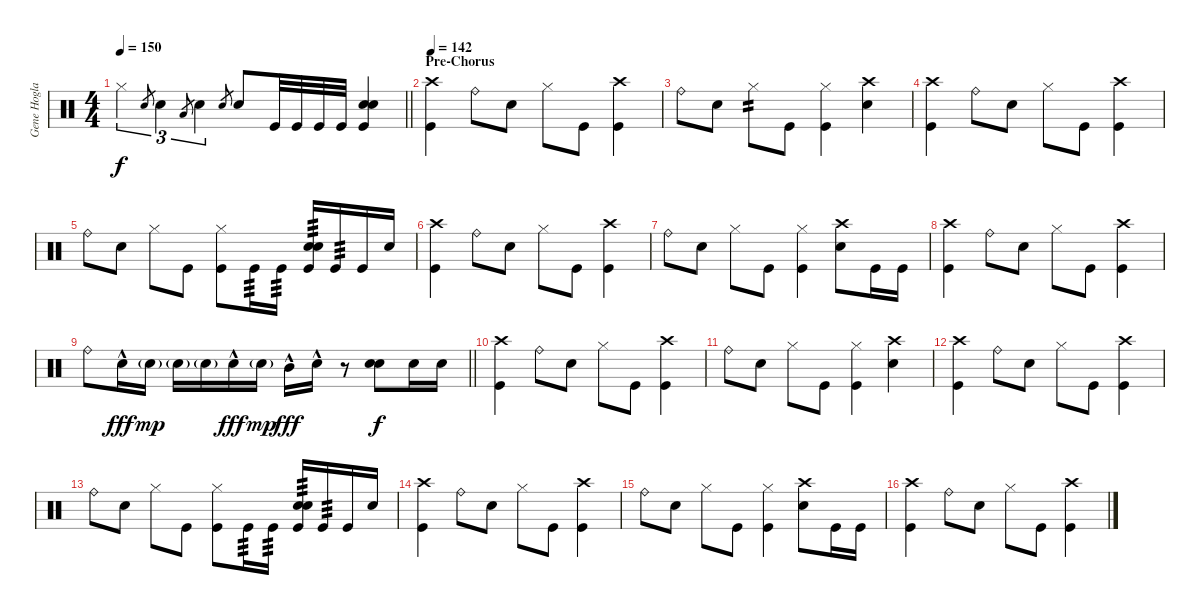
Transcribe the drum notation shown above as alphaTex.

\track ("Gene Hoglan" "Gene Hogla") {instrument percussion}
\staff {score}
\articulation defaults
\ts (4 4)
\tempo 150
\clef neutral
\barLineRight lightlight
\ks c "Hi-Hat (closed)".4{tu (3 2) dy f} "Snare (hit) 2".8{gr} "Snare (hit) 2".4{tu (3 2)} "Low Tom (hit)".8{gr} "Snare (hit) 2".4{tu (3 2)} "Snare (hit) 2".8{gr} "Snare (hit) 2".8 "Kick (hit)".32 "Kick (hit)".32 "Kick (hit)".32 "Kick (hit)".32
("Snare (hit) 2" "Snare (hit) 2" "Kick (hit)").4 |
\section ("" "Pre-Chorus")
\tempo 142
("Kick (hit)" "Crash high (hit)").4 "Ride (bell)".8 "Snare (hit) 2".8 "Hi-Hat (closed)".8 "Kick (hit)".8 ("Kick (hit)" "Crash high (hit)").4 |
"Ride (bell)".8 "Snare (hit) 2".8 "Hi-Hat (closed)".8{tp 2} "Kick (hit)".8 ("Hi-Hat (closed)" "Kick (hit)").4 ("Snare (hit) 2" "Crash high (hit)").4 |
("Kick (hit)" "Crash high (hit)").4 "Ride (bell)".8 "Snare (hit) 2".8 "Hi-Hat (closed)".8 "Kick (hit)".8 ("Kick (hit)" "Crash high (hit)").4 |
"Ride (bell)".8 "Snare (hit) 2".8 "Hi-Hat (closed)".8 "Kick (hit)".8 ("Hi-Hat (closed)" "Kick (hit)").8 "Kick (hit)".16{tp 3} "Kick (hit)".16{tp 3} ("Snare (hit) 2" "Snare (hit) 2" "Kick (hit)").16{tp 3} "Kick (hit)".16{tp 3} "Kick (hit)".16 "Snare (hit) 2".16 |
("Kick (hit)" "Crash high (hit)").4 "Ride (bell)".8 "Snare (hit) 2".8 "Hi-Hat (closed)".8 "Kick (hit)".8 ("Kick (hit)" "Crash high (hit)").4 |
"Ride (bell)".8 "Snare (hit) 2".8 "Hi-Hat (closed)".8 "Kick (hit)".8 ("Hi-Hat (closed)" "Kick (hit)").4 ("Snare (hit) 2" "Crash high (hit)").8 "Kick (hit)".16 "Kick (hit)".16 |
("Kick (hit)" "Crash high (hit)").4 "Ride (bell)".8 "Snare (hit) 2".8 "Hi-Hat (closed)".8 "Kick (hit)".8 ("Kick (hit)" "Crash high (hit)").4 |
\barLineRight lightlight "Ride (bell)".8 "Snare (hit) 2"{hac}.16{dy fff} "Snare (hit) 2"{g}.16{dy mp} "Snare (hit) 2"{g}.16 "Snare (hit) 2"{g}.16 "Snare (hit) 2"{hac}.16{dy fff} "Snare (hit) 2"{g}.16{dy mp} "Mid Tom (hit)"{hac}.16{dy fff} "Snare (hit) 2"{hac}.16
r.8 ("Snare (hit) 2" "Snare (hit) 2").8{dy f} "Snare (hit) 2".16 "Snare (hit) 2".16 |
("Kick (hit)" "Crash high (hit)").4 "Ride (bell)".8 "Snare (hit) 2".8 "Hi-Hat (closed)".8 "Kick (hit)".8 ("Kick (hit)" "Crash high (hit)").4 |
"Ride (bell)".8 "Snare (hit) 2".8 "Hi-Hat (closed)".8 "Kick (hit)".8 ("Hi-Hat (closed)" "Kick (hit)").4 ("Snare (hit) 2" "Crash high (hit)").4 |
("Kick (hit)" "Crash high (hit)").4 "Ride (bell)".8 "Snare (hit) 2".8 "Hi-Hat (closed)".8 "Kick (hit)".8 ("Kick (hit)" "Crash high (hit)").4 |
"Ride (bell)".8 "Snare (hit) 2".8 "Hi-Hat (closed)".8 "Kick (hit)".8 ("Hi-Hat (closed)" "Kick (hit)").8 "Kick (hit)".16{tp 3} "Kick (hit)".16{tp 3} ("Snare (hit) 2" "Snare (hit) 2" "Kick (hit)").16{tp 3} "Kick (hit)".16{tp 3} "Kick (hit)".16 "Snare (hit) 2".16 |
("Kick (hit)" "Crash high (hit)").4 "Ride (bell)".8 "Snare (hit) 2".8 "Hi-Hat (closed)".8 "Kick (hit)".8 ("Kick (hit)" "Crash high (hit)").4 |
"Ride (bell)".8 "Snare (hit) 2".8 "Hi-Hat (closed)".8 "Kick (hit)".8 ("Hi-Hat (closed)" "Kick (hit)").4 ("Snare (hit) 2" "Crash high (hit)").8 "Kick (hit)".16 "Kick (hit)".16 |
("Kick (hit)" "Crash high (hit)").4 "Ride (bell)".8 "Snare (hit) 2".8 "Hi-Hat (closed)".8 "Kick (hit)".8 ("Kick (hit)" "Crash high (hit)").4
